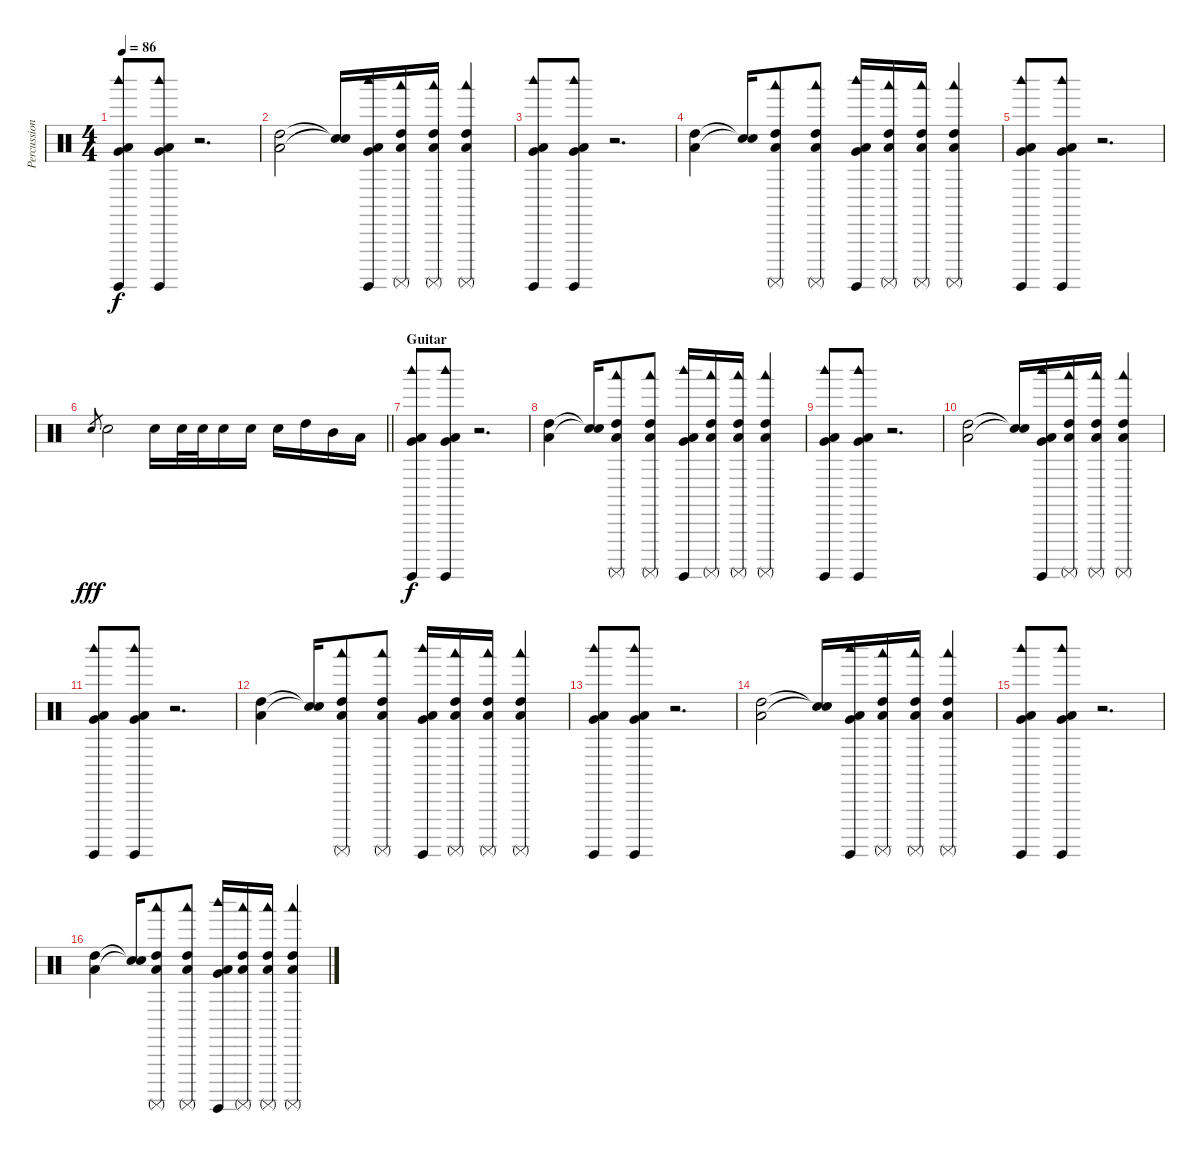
\track ("Percussion 2" "Percussion") {instrument percussion}
\staff {score}
\articulation defaults
\ts (4 4)
\tempo 86
\clef neutral
\ks c
("Low Tom (hit)" "Woodblock high (hit)" "Surdo (hit)" "Very Low Tom (hit)").8{dy f} ("Low Tom (hit)" "Woodblock high (hit)" "Surdo (hit)" "Very Low Tom (hit)").8 r.2{d} |
("High Tom (hit)" "Low Tom (hit)").2 ("Snare (hit)"{t} "Snare (hit)"{t}).16 ("Low Tom (hit)" "Woodblock high (hit)" "Surdo (hit)" "Very Low Tom (hit)").16 ("High Tom (hit)" "Woodblock low (hit)" "Surdo (mute)" "Low Tom (hit)").16 ("High Tom (hit)" "Woodblock low (hit)" "Surdo (mute)" "Low Tom (hit)").16 ("High Tom (hit)" "Woodblock low (hit)" "Surdo (mute)" "Low Tom (hit)").4 |
("Low Tom (hit)" "Woodblock high (hit)" "Surdo (hit)" "Very Low Tom (hit)").8 ("Low Tom (hit)" "Woodblock high (hit)" "Surdo (hit)" "Very Low Tom (hit)").8 r.2{d} |
("High Tom (hit)" "Low Tom (hit)").4 ("Snare (hit)"{t} "Snare (hit)"{t}).16 ("High Tom (hit)" "Woodblock low (hit)" "Surdo (mute)" "Low Tom (hit)").8 ("High Tom (hit)" "Woodblock low (hit)" "Surdo (mute)" "Low Tom (hit)").8 ("Low Tom (hit)" "Woodblock high (hit)" "Surdo (hit)" "Very Low Tom (hit)").16 ("High Tom (hit)" "Woodblock low (hit)" "Surdo (mute)" "Low Tom (hit)").16 ("High Tom (hit)" "Woodblock low (hit)" "Surdo (mute)" "Low Tom (hit)").16 ("High Tom (hit)" "Woodblock low (hit)" "Surdo (mute)" "Low Tom (hit)").4 |
("Low Tom (hit)" "Woodblock high (hit)" "Surdo (hit)" "Very Low Tom (hit)").8 ("Low Tom (hit)" "Woodblock high (hit)" "Surdo (hit)" "Very Low Tom (hit)").8 r.2{d} |
\barLineRight lightlight "Electric Snare (hit)".8{gr dy fff} "Electric Snare (hit)".2 "Electric Snare (hit)".16 "Electric Snare (hit)".32 "Electric Snare (hit)".32 "Electric Snare (hit)".16 "Electric Snare (hit)".16 "Electric Snare (hit)".16 "High Tom (hit)".16 "Mid Tom (hit)".16 "Low Tom (hit)".16
|
\section ("" "Guitar ")
("Low Tom (hit)" "Woodblock high (hit)" "Surdo (hit)" "Very Low Tom (hit)").8{dy f} ("Low Tom (hit)" "Woodblock high (hit)" "Surdo (hit)" "Very Low Tom (hit)").8 r.2{d} |
("High Tom (hit)" "Low Tom (hit)").4 ("Snare (hit)"{t} "Snare (hit)"{t}).16 ("High Tom (hit)" "Woodblock low (hit)" "Surdo (mute)" "Low Tom (hit)").8 ("High Tom (hit)" "Woodblock low (hit)" "Surdo (mute)" "Low Tom (hit)").8 ("Low Tom (hit)" "Woodblock high (hit)" "Surdo (hit)" "Very Low Tom (hit)").16 ("High Tom (hit)" "Woodblock low (hit)" "Surdo (mute)" "Low Tom (hit)").16 ("High Tom (hit)" "Woodblock low (hit)" "Surdo (mute)" "Low Tom (hit)").16 ("High Tom (hit)" "Woodblock low (hit)" "Surdo (mute)" "Low Tom (hit)").4 |
("Low Tom (hit)" "Woodblock high (hit)" "Surdo (hit)" "Very Low Tom (hit)").8 ("Low Tom (hit)" "Woodblock high (hit)" "Surdo (hit)" "Very Low Tom (hit)").8 r.2{d} |
("High Tom (hit)" "Low Tom (hit)").2 ("Snare (hit)"{t} "Snare (hit)"{t}).16 ("Low Tom (hit)" "Woodblock high (hit)" "Surdo (hit)" "Very Low Tom (hit)").16 ("High Tom (hit)" "Woodblock low (hit)" "Surdo (mute)" "Low Tom (hit)").16 ("High Tom (hit)" "Woodblock low (hit)" "Surdo (mute)" "Low Tom (hit)").16 ("High Tom (hit)" "Woodblock low (hit)" "Surdo (mute)" "Low Tom (hit)").4 |
("Low Tom (hit)" "Woodblock high (hit)" "Surdo (hit)" "Very Low Tom (hit)").8 ("Low Tom (hit)" "Woodblock high (hit)" "Surdo (hit)" "Very Low Tom (hit)").8 r.2{d} |
("High Tom (hit)" "Low Tom (hit)").4 ("Snare (hit)"{t} "Snare (hit)"{t}).16 ("High Tom (hit)" "Woodblock low (hit)" "Surdo (mute)" "Low Tom (hit)").8 ("High Tom (hit)" "Woodblock low (hit)" "Surdo (mute)" "Low Tom (hit)").8 ("Low Tom (hit)" "Woodblock high (hit)" "Surdo (hit)" "Very Low Tom (hit)").16 ("High Tom (hit)" "Woodblock low (hit)" "Surdo (mute)" "Low Tom (hit)").16 ("High Tom (hit)" "Woodblock low (hit)" "Surdo (mute)" "Low Tom (hit)").16 ("High Tom (hit)" "Woodblock low (hit)" "Surdo (mute)" "Low Tom (hit)").4 |
("Low Tom (hit)" "Woodblock high (hit)" "Surdo (hit)" "Very Low Tom (hit)").8 ("Low Tom (hit)" "Woodblock high (hit)" "Surdo (hit)" "Very Low Tom (hit)").8 r.2{d} |
("High Tom (hit)" "Low Tom (hit)").2 ("Snare (hit)"{t} "Snare (hit)"{t}).16 ("Low Tom (hit)" "Woodblock high (hit)" "Surdo (hit)" "Very Low Tom (hit)").16 ("High Tom (hit)" "Woodblock low (hit)" "Surdo (mute)" "Low Tom (hit)").16 ("High Tom (hit)" "Woodblock low (hit)" "Surdo (mute)" "Low Tom (hit)").16 ("High Tom (hit)" "Woodblock low (hit)" "Surdo (mute)" "Low Tom (hit)").4 |
("Low Tom (hit)" "Woodblock high (hit)" "Surdo (hit)" "Very Low Tom (hit)").8 ("Low Tom (hit)" "Woodblock high (hit)" "Surdo (hit)" "Very Low Tom (hit)").8 r.2{d} |
("High Tom (hit)" "Low Tom (hit)").4 ("Snare (hit)"{t} "Snare (hit)"{t}).16 ("High Tom (hit)" "Woodblock low (hit)" "Surdo (mute)" "Low Tom (hit)").8 ("High Tom (hit)" "Woodblock low (hit)" "Surdo (mute)" "Low Tom (hit)").8 ("Low Tom (hit)" "Woodblock high (hit)" "Surdo (hit)" "Very Low Tom (hit)").16 ("High Tom (hit)" "Woodblock low (hit)" "Surdo (mute)" "Low Tom (hit)").16 ("High Tom (hit)" "Woodblock low (hit)" "Surdo (mute)" "Low Tom (hit)").16 ("High Tom (hit)" "Woodblock low (hit)" "Surdo (mute)" "Low Tom (hit)").4
